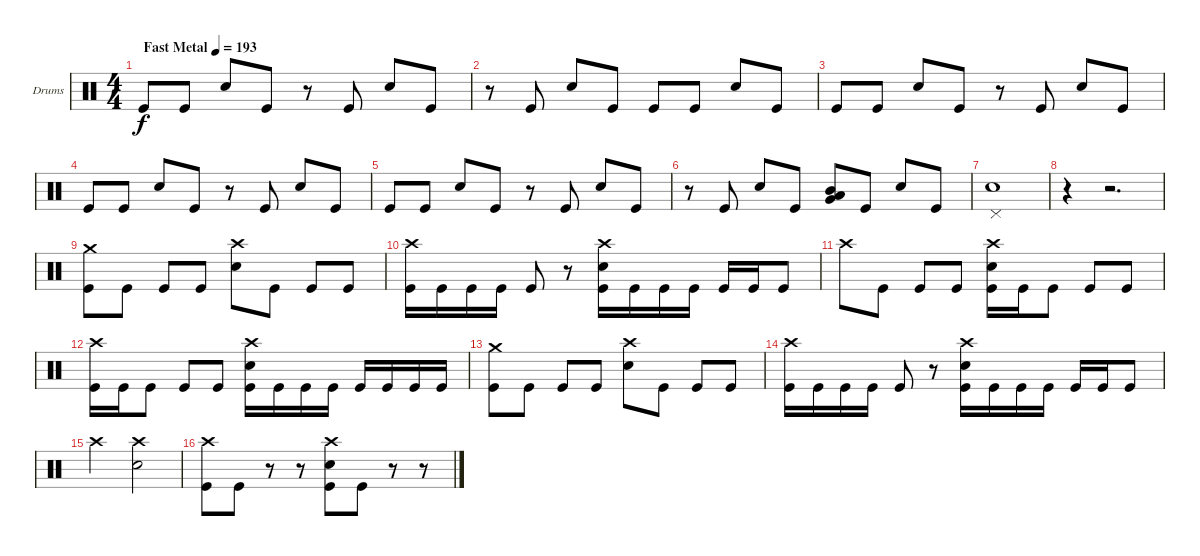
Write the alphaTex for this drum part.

\bracketExtendMode groupsimilarinstruments
\firstSystemTrackNameOrientation horizontal
\otherSystemsTrackNameOrientation horizontal
\track ("Drumkit" "Drums") {instrument percussion}
\staff {score}
\articulation defaults
\ts (4 4)
\beaming (8 2 2 2 2)
\tempo (193 "Fast Metal")
\clef neutral
\ks c "Kick (hit)".8{dy f} "Kick (hit)".8 "Snare (hit) 2".8 "Kick (hit)".8
r.8 "Kick (hit)".8 "Snare (hit) 2".8 "Kick (hit)".8 |
r.8 "Kick (hit)".8 "Snare (hit) 2".8 "Kick (hit)".8 "Kick (hit)".8 "Kick (hit)".8 "Snare (hit) 2".8 "Kick (hit)".8 |
"Kick (hit)".8 "Kick (hit)".8 "Snare (hit) 2".8 "Kick (hit)".8 r.8 "Kick (hit)".8 "Snare (hit) 2".8 "Kick (hit)".8 |
"Kick (hit)".8 "Kick (hit)".8 "Snare (hit) 2".8 "Kick (hit)".8 r.8 "Kick (hit)".8 "Snare (hit) 2".8 "Kick (hit)".8 |
"Kick (hit)".8 "Kick (hit)".8 "Snare (hit) 2".8 "Kick (hit)".8 r.8 "Kick (hit)".8 "Snare (hit) 2".8 "Kick (hit)".8 |
r.8 "Kick (hit)".8 "Snare (hit) 2".8 "Kick (hit)".8 ("Mid Tom (hit)" "Low Tom (hit)" "Very Low Tom (hit)").8 "Kick (hit)".8 "Snare (hit) 2".8 "Kick (hit)".8 |
("Pedal Hi-Hat (hit)" "Snare (hit) 2").1 |
r.4 r.2{d} |
("Crash medium (hit)" "Kick (hit)").8 "Kick (hit)".8 "Kick (hit)".8 "Kick (hit)".8 ("Crash high (hit)" "Snare (hit) 2").8 "Kick (hit)".8 "Kick (hit)".8 "Kick (hit)".8 |
("Crash high (hit)" "Kick (hit)").16 "Kick (hit)".16 "Kick (hit)".16 "Kick (hit)".16 "Kick (hit)".8 r.8 ("Crash high (hit)" "Snare (hit) 2" "Kick (hit)").16 "Kick (hit)".16 "Kick (hit)".16 "Kick (hit)".16 "Kick (hit)".16 "Kick (hit)".16 "Kick (hit)".8 |
"Crash high (hit)".8 "Kick (hit)".8 "Kick (hit)".8 "Kick (hit)".8 ("Crash high (hit)" "Snare (hit) 2" "Kick (hit)").16 "Kick (hit)".16 "Kick (hit)".8 "Kick (hit)".8 "Kick (hit)".8 |
("Crash high (hit)" "Kick (hit)").16 "Kick (hit)".16 "Kick (hit)".8 "Kick (hit)".8 "Kick (hit)".8 ("Crash high (hit)" "Snare (hit) 2" "Kick (hit)").16 "Kick (hit)".16 "Kick (hit)".16 "Kick (hit)".16 "Kick (hit)".16 "Kick (hit)".16 "Kick (hit)".16 "Kick (hit)".16 |
("Crash medium (hit)" "Kick (hit)").8 "Kick (hit)".8 "Kick (hit)".8 "Kick (hit)".8 ("Crash high (hit)" "Snare (hit) 2").8 "Kick (hit)".8 "Kick (hit)".8 "Kick (hit)".8 |
("Crash high (hit)" "Kick (hit)").16 "Kick (hit)".16 "Kick (hit)".16 "Kick (hit)".16 "Kick (hit)".8 r.8 ("Crash high (hit)" "Snare (hit) 2" "Kick (hit)").16 "Kick (hit)".16 "Kick (hit)".16 "Kick (hit)".16 "Kick (hit)".16 "Kick (hit)".16 "Kick (hit)".8 |
"Crash high (hit)".2 ("Crash high (hit)" "Snare (hit) 2").2 |
("Crash high (hit)" "Kick (hit)").8 "Kick (hit)".8 r.8 r.8 ("Crash high (hit)" "Snare (hit) 2" "Kick (hit)").8 "Kick (hit)".8 r.8 r.8
